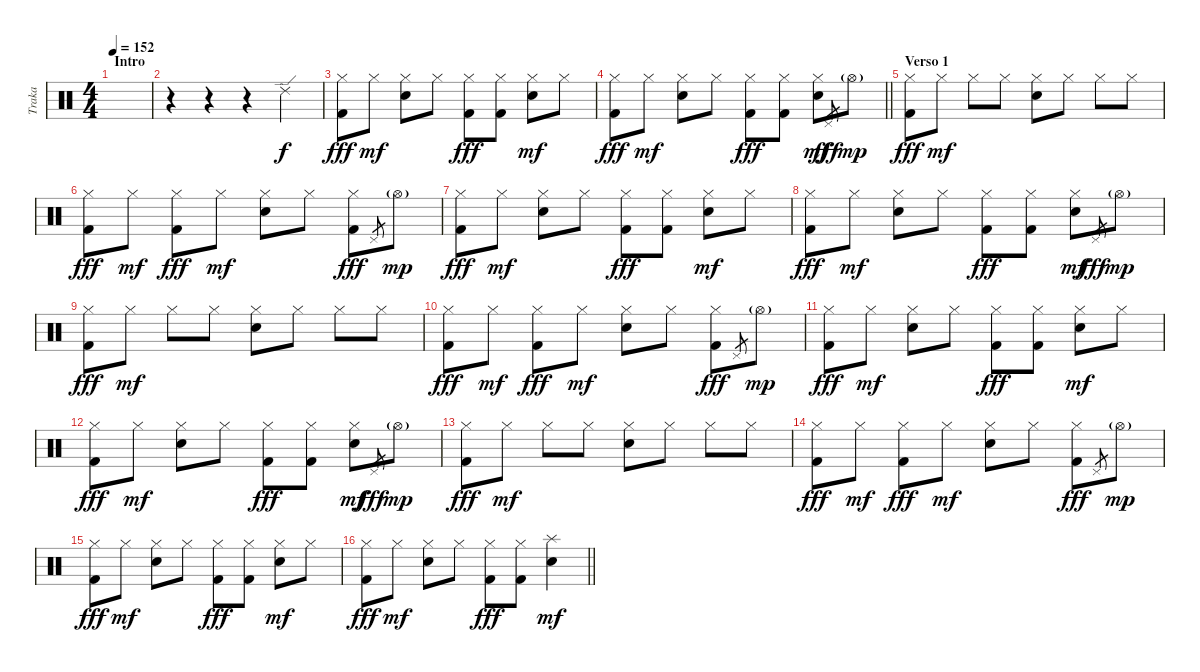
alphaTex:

\track ("Traka" "Traka") {instrument percussion}
\staff {score}
\articulation defaults
\ts (4 4)
\section ("" "Intro")
\tempo 152
\clef neutral
\ks c
|
r.4 r.4 r.4 "Ride (edge) 2".4 |
("Hi-Hat (closed)" "Kick (hit) 2").8{dy fff} "Hi-Hat (closed)".8{dy mf} ("Hi-Hat (closed)" "Electric Snare (hit)").8 "Hi-Hat (closed)".8 ("Hi-Hat (closed)" "Kick (hit) 2").8{dy fff} ("Hi-Hat (closed)" "Kick (hit) 2").8 ("Hi-Hat (closed)" "Electric Snare (hit)").8{dy mf} "Hi-Hat (closed)".8 |
\barLineRight lightlight
("Hi-Hat (closed)" "Kick (hit) 2").8{dy fff} "Hi-Hat (closed)".8{dy mf} ("Hi-Hat (closed)" "Electric Snare (hit)").8 "Hi-Hat (closed)".8 ("Hi-Hat (closed)" "Kick (hit) 2").8{dy fff} ("Hi-Hat (closed)" "Kick (hit) 2").8 ("Hi-Hat (closed)" "Electric Snare (hit)").8{dy mf} "Pedal Hi-Hat (hit)".8{gr dy fff} "Hi-Hat (open)"{g}.8{dy mp} |
\section ("" "Verso 1")
("Hi-Hat (closed)" "Kick (hit) 2").8{dy fff} "Hi-Hat (closed)".8{dy mf} "Hi-Hat (closed)".8 "Hi-Hat (closed)".8 ("Hi-Hat (closed)" "Electric Snare (hit)").8 "Hi-Hat (closed)".8 "Hi-Hat (closed)".8 "Hi-Hat (closed)".8 |
("Hi-Hat (closed)" "Kick (hit) 2").8{dy fff} "Hi-Hat (closed)".8{dy mf} ("Hi-Hat (closed)" "Kick (hit) 2").8{dy fff} "Hi-Hat (closed)".8{dy mf} ("Hi-Hat (closed)" "Electric Snare (hit)").8 "Hi-Hat (closed)".8 ("Hi-Hat (closed)" "Kick (hit) 2").8{dy fff} "Pedal Hi-Hat (hit)".8{gr} "Hi-Hat (open)"{g}.8{dy mp} |
("Hi-Hat (closed)" "Kick (hit) 2").8{dy fff} "Hi-Hat (closed)".8{dy mf} ("Hi-Hat (closed)" "Electric Snare (hit)").8 "Hi-Hat (closed)".8 ("Hi-Hat (closed)" "Kick (hit) 2").8{dy fff} ("Hi-Hat (closed)" "Kick (hit) 2").8 ("Hi-Hat (closed)" "Electric Snare (hit)").8{dy mf} "Hi-Hat (closed)".8 |
("Hi-Hat (closed)" "Kick (hit) 2").8{dy fff} "Hi-Hat (closed)".8{dy mf} ("Hi-Hat (closed)" "Electric Snare (hit)").8 "Hi-Hat (closed)".8 ("Hi-Hat (closed)" "Kick (hit) 2").8{dy fff} ("Hi-Hat (closed)" "Kick (hit) 2").8 ("Hi-Hat (closed)" "Electric Snare (hit)").8{dy mf} "Pedal Hi-Hat (hit)".8{gr dy fff} "Hi-Hat (open)"{g}.8{dy mp} |
("Hi-Hat (closed)" "Kick (hit) 2").8{dy fff} "Hi-Hat (closed)".8{dy mf} "Hi-Hat (closed)".8 "Hi-Hat (closed)".8 ("Hi-Hat (closed)" "Electric Snare (hit)").8 "Hi-Hat (closed)".8 "Hi-Hat (closed)".8 "Hi-Hat (closed)".8 |
("Hi-Hat (closed)" "Kick (hit) 2").8{dy fff} "Hi-Hat (closed)".8{dy mf} ("Hi-Hat (closed)" "Kick (hit) 2").8{dy fff} "Hi-Hat (closed)".8{dy mf} ("Hi-Hat (closed)" "Electric Snare (hit)").8 "Hi-Hat (closed)".8 ("Hi-Hat (closed)" "Kick (hit) 2").8{dy fff} "Pedal Hi-Hat (hit)".8{gr} "Hi-Hat (open)"{g}.8{dy mp} |
("Hi-Hat (closed)" "Kick (hit) 2").8{dy fff} "Hi-Hat (closed)".8{dy mf} ("Hi-Hat (closed)" "Electric Snare (hit)").8 "Hi-Hat (closed)".8 ("Hi-Hat (closed)" "Kick (hit) 2").8{dy fff} ("Hi-Hat (closed)" "Kick (hit) 2").8 ("Hi-Hat (closed)" "Electric Snare (hit)").8{dy mf} "Hi-Hat (closed)".8 |
("Hi-Hat (closed)" "Kick (hit) 2").8{dy fff} "Hi-Hat (closed)".8{dy mf} ("Hi-Hat (closed)" "Electric Snare (hit)").8 "Hi-Hat (closed)".8 ("Hi-Hat (closed)" "Kick (hit) 2").8{dy fff} ("Hi-Hat (closed)" "Kick (hit) 2").8 ("Hi-Hat (closed)" "Electric Snare (hit)").8{dy mf} "Pedal Hi-Hat (hit)".8{gr dy fff} "Hi-Hat (open)"{g}.8{dy mp} |
("Hi-Hat (closed)" "Kick (hit) 2").8{dy fff} "Hi-Hat (closed)".8{dy mf} "Hi-Hat (closed)".8 "Hi-Hat (closed)".8 ("Hi-Hat (closed)" "Electric Snare (hit)").8 "Hi-Hat (closed)".8 "Hi-Hat (closed)".8 "Hi-Hat (closed)".8 |
("Hi-Hat (closed)" "Kick (hit) 2").8{dy fff} "Hi-Hat (closed)".8{dy mf} ("Hi-Hat (closed)" "Kick (hit) 2").8{dy fff} "Hi-Hat (closed)".8{dy mf} ("Hi-Hat (closed)" "Electric Snare (hit)").8 "Hi-Hat (closed)".8 ("Hi-Hat (closed)" "Kick (hit) 2").8{dy fff} "Pedal Hi-Hat (hit)".8{gr} "Hi-Hat (open)"{g}.8{dy mp} |
("Hi-Hat (closed)" "Kick (hit) 2").8{dy fff} "Hi-Hat (closed)".8{dy mf} ("Hi-Hat (closed)" "Electric Snare (hit)").8 "Hi-Hat (closed)".8 ("Hi-Hat (closed)" "Kick (hit) 2").8{dy fff} ("Hi-Hat (closed)" "Kick (hit) 2").8 ("Hi-Hat (closed)" "Electric Snare (hit)").8{dy mf} "Hi-Hat (closed)".8 |
\barLineRight lightlight
("Hi-Hat (closed)" "Kick (hit) 2").8{dy fff} "Hi-Hat (closed)".8{dy mf} ("Hi-Hat (closed)" "Electric Snare (hit)").8 "Hi-Hat (closed)".8 ("Hi-Hat (closed)" "Kick (hit) 2").8{dy fff} ("Hi-Hat (closed)" "Kick (hit) 2").8 ("Splash (hit)" "Electric Snare (hit)").4{dy mf}
